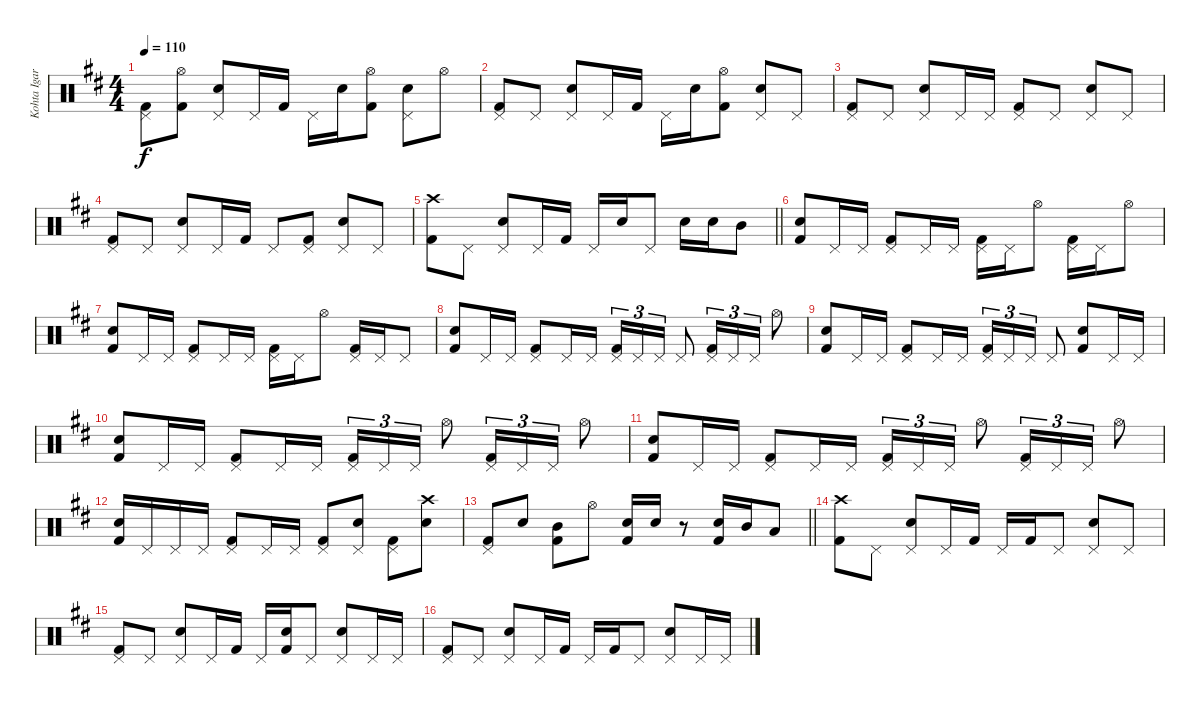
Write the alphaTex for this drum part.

\track ("Kohta Igarashi" "Kohta Igar") {instrument percussion}
\staff {score}
\articulation defaults
\ts (4 4)
\tempo 110
\clef neutral
\ks d
("Pedal Hi-Hat (hit)" "Kick (hit) 2").8{dy f} ("Hi-Hat (open)" "Kick (hit) 2").8 ("Pedal Hi-Hat (hit)" "Electric Snare (hit)").8 "Pedal Hi-Hat (hit)".16 "Kick (hit) 2".16 "Pedal Hi-Hat (hit)".16 "Electric Snare (hit)".16 ("Hi-Hat (open)" "Kick (hit) 2").8 ("Pedal Hi-Hat (hit)" "Electric Snare (hit)").8 "Hi-Hat (open)".8 |
("Pedal Hi-Hat (hit)" "Kick (hit) 2").8 "Pedal Hi-Hat (hit)".8 ("Pedal Hi-Hat (hit)" "Electric Snare (hit)").8 "Pedal Hi-Hat (hit)".16 "Kick (hit) 2".16 "Pedal Hi-Hat (hit)".16 "Electric Snare (hit)".16 ("Hi-Hat (open)" "Kick (hit) 2").8 ("Pedal Hi-Hat (hit)" "Electric Snare (hit)").8 "Pedal Hi-Hat (hit)".8 |
("Pedal Hi-Hat (hit)" "Kick (hit) 2").8 "Pedal Hi-Hat (hit)".8 ("Pedal Hi-Hat (hit)" "Electric Snare (hit)").8 "Pedal Hi-Hat (hit)".16 "Pedal Hi-Hat (hit)".16 ("Pedal Hi-Hat (hit)" "Kick (hit) 2").8 "Pedal Hi-Hat (hit)".8 ("Pedal Hi-Hat (hit)" "Electric Snare (hit)").8 "Pedal Hi-Hat (hit)".8 |
("Pedal Hi-Hat (hit)" "Kick (hit) 2").8 "Pedal Hi-Hat (hit)".8 ("Pedal Hi-Hat (hit)" "Electric Snare (hit)").8 "Pedal Hi-Hat (hit)".16 "Kick (hit) 2".16 "Pedal Hi-Hat (hit)".8 ("Pedal Hi-Hat (hit)" "Kick (hit) 2").8 ("Pedal Hi-Hat (hit)" "Electric Snare (hit)").8 "Pedal Hi-Hat (hit)".8 |
\barLineRight lightlight
("Crash high (hit)" "Kick (hit) 2").8 "Pedal Hi-Hat (hit)".8 ("Pedal Hi-Hat (hit)" "Electric Snare (hit)").8 "Pedal Hi-Hat (hit)".16 "Kick (hit) 2".16 "Pedal Hi-Hat (hit)".16 "Electric Snare (hit)".16 "Pedal Hi-Hat (hit)".8 "Electric Snare (hit)".16 "Electric Snare (hit)".16 "Mid Tom (hit)".8 |
("Electric Snare (hit)" "Kick (hit) 2").8 "Pedal Hi-Hat (hit)".16 "Pedal Hi-Hat (hit)".16 ("Pedal Hi-Hat (hit)" "Kick (hit) 2").8 "Pedal Hi-Hat (hit)".16 "Pedal Hi-Hat (hit)".16 ("Pedal Hi-Hat (hit)" "Kick (hit) 2").16 "Pedal Hi-Hat (hit)".16 "Hi-Hat (open)".8 ("Pedal Hi-Hat (hit)" "Kick (hit) 2").16 "Pedal Hi-Hat (hit)".16 "Hi-Hat (open)".8 |
("Electric Snare (hit)" "Kick (hit) 2").8 "Pedal Hi-Hat (hit)".16 "Pedal Hi-Hat (hit)".16 ("Pedal Hi-Hat (hit)" "Kick (hit) 2").8 "Pedal Hi-Hat (hit)".16 "Pedal Hi-Hat (hit)".16 ("Pedal Hi-Hat (hit)" "Kick (hit) 2").16 "Pedal Hi-Hat (hit)".16 "Hi-Hat (open)".8 ("Pedal Hi-Hat (hit)" "Kick (hit) 2").16 "Pedal Hi-Hat (hit)".16 "Pedal Hi-Hat (hit)".8 |
("Electric Snare (hit)" "Kick (hit) 2").8 "Pedal Hi-Hat (hit)".16 "Pedal Hi-Hat (hit)".16 ("Pedal Hi-Hat (hit)" "Kick (hit) 2").8 "Pedal Hi-Hat (hit)".16 "Pedal Hi-Hat (hit)".16 ("Pedal Hi-Hat (hit)" "Kick (hit) 2").16{tu (3 2)} "Pedal Hi-Hat (hit)".16{tu (3 2)} "Pedal Hi-Hat (hit)".16{tu (3 2)} "Pedal Hi-Hat (hit)".8 ("Pedal Hi-Hat (hit)" "Kick (hit) 2").16{tu (3 2)} "Pedal Hi-Hat (hit)".16{tu (3 2)} "Pedal Hi-Hat (hit)".16{tu (3 2)} "Hi-Hat (open)".8 |
("Electric Snare (hit)" "Kick (hit) 2").8 "Pedal Hi-Hat (hit)".16 "Pedal Hi-Hat (hit)".16 ("Pedal Hi-Hat (hit)" "Kick (hit) 2").8 "Pedal Hi-Hat (hit)".16 "Pedal Hi-Hat (hit)".16 ("Pedal Hi-Hat (hit)" "Kick (hit) 2").16{tu (3 2)} "Pedal Hi-Hat (hit)".16{tu (3 2)} "Pedal Hi-Hat (hit)".16{tu (3 2)} "Pedal Hi-Hat (hit)".8 ("Electric Snare (hit)" "Kick (hit) 2").8 "Pedal Hi-Hat (hit)".16 "Pedal Hi-Hat (hit)".16 |
("Electric Snare (hit)" "Kick (hit) 2").8 "Pedal Hi-Hat (hit)".16 "Pedal Hi-Hat (hit)".16 ("Pedal Hi-Hat (hit)" "Kick (hit) 2").8 "Pedal Hi-Hat (hit)".16 "Pedal Hi-Hat (hit)".16 ("Pedal Hi-Hat (hit)" "Kick (hit) 2").16{tu (3 2)} "Pedal Hi-Hat (hit)".16{tu (3 2)} "Pedal Hi-Hat (hit)".16{tu (3 2)} "Hi-Hat (open)".8 ("Pedal Hi-Hat (hit)" "Kick (hit) 2").16{tu (3 2)} "Pedal Hi-Hat (hit)".16{tu (3 2)} "Pedal Hi-Hat (hit)".16{tu (3 2)} "Hi-Hat (open)".8 |
("Electric Snare (hit)" "Kick (hit) 2").8 "Pedal Hi-Hat (hit)".16 "Pedal Hi-Hat (hit)".16 ("Pedal Hi-Hat (hit)" "Kick (hit) 2").8 "Pedal Hi-Hat (hit)".16 "Pedal Hi-Hat (hit)".16 ("Pedal Hi-Hat (hit)" "Kick (hit) 2").16{tu (3 2)} "Pedal Hi-Hat (hit)".16{tu (3 2)} "Pedal Hi-Hat (hit)".16{tu (3 2)} "Hi-Hat (open)".8 ("Pedal Hi-Hat (hit)" "Kick (hit) 2").16{tu (3 2)} "Pedal Hi-Hat (hit)".16{tu (3 2)} "Pedal Hi-Hat (hit)".16{tu (3 2)} "Hi-Hat (open)".8 |
("Electric Snare (hit)" "Kick (hit) 2").16 "Pedal Hi-Hat (hit)".16 "Pedal Hi-Hat (hit)".16 "Pedal Hi-Hat (hit)".16 ("Pedal Hi-Hat (hit)" "Kick (hit) 2").8 "Pedal Hi-Hat (hit)".16 "Pedal Hi-Hat (hit)".16 ("Pedal Hi-Hat (hit)" "Kick (hit) 2").8 ("Pedal Hi-Hat (hit)" "Electric Snare (hit)").8 ("Pedal Hi-Hat (hit)" "Kick (hit) 2").8 ("Crash high (hit)" "Electric Snare (hit)").8 |
\barLineRight lightlight
("Pedal Hi-Hat (hit)" "Kick (hit) 2").8 "Electric Snare (hit)".8 ("Mid Tom (hit)" "Kick (hit) 2").8 "Hi-Hat (open)".8 ("Electric Snare (hit)" "Kick (hit) 2").16 "Electric Snare (hit)".16 r.8 ("Electric Snare (hit)" "Kick (hit) 2").16 "Mid Tom (hit)".16 "Low Tom (hit)".8 |
("Crash high (hit)" "Kick (hit) 2").8 "Pedal Hi-Hat (hit)".8 ("Pedal Hi-Hat (hit)" "Electric Snare (hit)").8 "Pedal Hi-Hat (hit)".16 "Kick (hit) 2".16 "Pedal Hi-Hat (hit)".16 "Kick (hit) 2".16 "Pedal Hi-Hat (hit)".8 ("Pedal Hi-Hat (hit)" "Electric Snare (hit)").8 "Pedal Hi-Hat (hit)".8 |
("Pedal Hi-Hat (hit)" "Kick (hit) 2").8 "Pedal Hi-Hat (hit)".8 ("Pedal Hi-Hat (hit)" "Electric Snare (hit)").8 "Pedal Hi-Hat (hit)".16 "Kick (hit) 2".16 "Pedal Hi-Hat (hit)".16 ("Electric Snare (hit)" "Kick (hit) 2").16 "Pedal Hi-Hat (hit)".8 ("Pedal Hi-Hat (hit)" "Electric Snare (hit)").8 "Pedal Hi-Hat (hit)".16 "Pedal Hi-Hat (hit)".16 |
("Pedal Hi-Hat (hit)" "Kick (hit) 2").8 "Pedal Hi-Hat (hit)".8 ("Pedal Hi-Hat (hit)" "Electric Snare (hit)").8 "Pedal Hi-Hat (hit)".16 "Kick (hit) 2".16 "Pedal Hi-Hat (hit)".16 "Kick (hit) 2".16 "Pedal Hi-Hat (hit)".8 ("Pedal Hi-Hat (hit)" "Electric Snare (hit)").8 "Pedal Hi-Hat (hit)".16 "Pedal Hi-Hat (hit)".16
